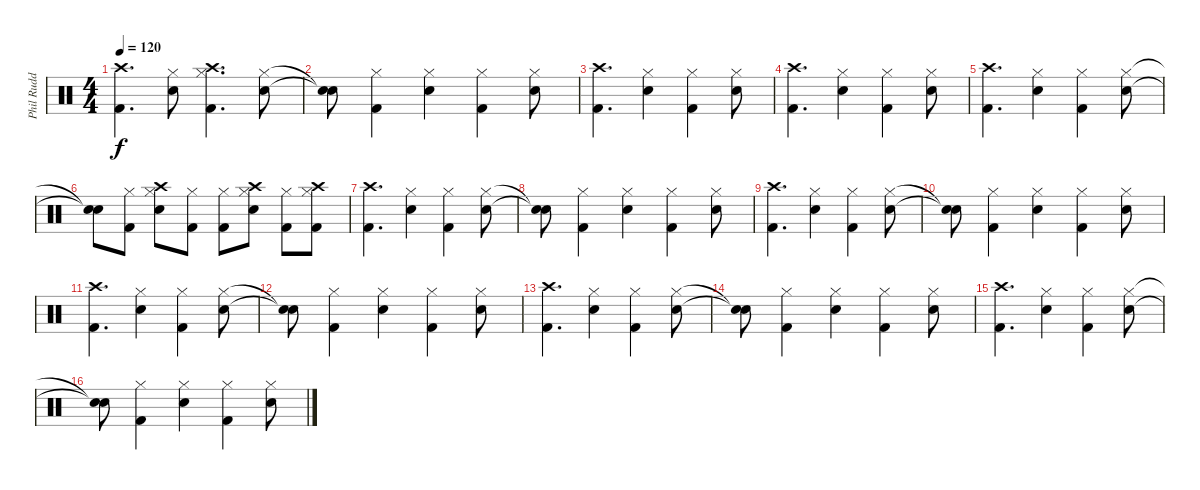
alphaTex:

\track ("Phil Rudd - Drums" "Phil Rudd ") {instrument percussion}
\staff {score}
\articulation defaults
\ts (4 4)
\tempo 120
\clef neutral
\ks c
("Crash high (hit)" "Kick (hit) 2").4{d dy f} ("Hi-Hat (closed)" "Snare (hit) 2").8 ("Crash high (hit)" "Hi-Hat (closed)" "Kick (hit) 2").4{d} ("Hi-Hat (closed)" "Snare (hit) 2").8 |
("Snare (hit)"{t} "Snare (hit)"{t}).8 ("Hi-Hat (closed)" "Kick (hit) 2").4 ("Hi-Hat (closed)" "Snare (hit) 2").4 ("Hi-Hat (closed)" "Kick (hit) 2").4 ("Hi-Hat (closed)" "Snare (hit) 2").8 |
("Crash high (hit)" "Kick (hit) 2").4{d} ("Hi-Hat (closed)" "Snare (hit) 2").4 ("Hi-Hat (closed)" "Kick (hit) 2").4 ("Hi-Hat (closed)" "Snare (hit) 2").8 |
("Crash high (hit)" "Kick (hit) 2").4{d} ("Hi-Hat (closed)" "Snare (hit) 2").4 ("Hi-Hat (closed)" "Kick (hit) 2").4 ("Hi-Hat (closed)" "Snare (hit) 2").8 |
("Crash high (hit)" "Kick (hit) 2").4{d} ("Hi-Hat (closed)" "Snare (hit) 2").4 ("Hi-Hat (closed)" "Kick (hit) 2").4 ("Hi-Hat (closed)" "Snare (hit) 2").8 |
("Snare (hit)"{t} "Snare (hit)"{t}).8 ("Hi-Hat (closed)" "Kick (hit) 2").8 ("Crash high (hit)" "Hi-Hat (closed)" "Snare (hit) 2").8 ("Hi-Hat (closed)" "Kick (hit) 2").8 ("Hi-Hat (closed)" "Kick (hit) 2").8 ("Crash high (hit)" "Hi-Hat (closed)" "Snare (hit) 2").8 ("Hi-Hat (closed)" "Kick (hit) 2").8 ("Crash high (hit)" "Hi-Hat (closed)" "Kick (hit) 2").8 |
("Crash high (hit)" "Kick (hit) 2").4{d} ("Hi-Hat (closed)" "Snare (hit) 2").4 ("Hi-Hat (closed)" "Kick (hit) 2").4 ("Hi-Hat (closed)" "Snare (hit) 2").8 |
("Snare (hit)"{t} "Snare (hit)"{t}).8 ("Hi-Hat (closed)" "Kick (hit) 2").4 ("Hi-Hat (closed)" "Snare (hit) 2").4 ("Hi-Hat (closed)" "Kick (hit) 2").4 ("Hi-Hat (closed)" "Snare (hit) 2").8 |
("Crash high (hit)" "Kick (hit) 2").4{d} ("Hi-Hat (closed)" "Snare (hit) 2").4 ("Hi-Hat (closed)" "Kick (hit) 2").4 ("Hi-Hat (closed)" "Snare (hit) 2").8 |
("Snare (hit)"{t} "Snare (hit)"{t}).8 ("Hi-Hat (closed)" "Kick (hit) 2").4 ("Hi-Hat (closed)" "Snare (hit) 2").4 ("Hi-Hat (closed)" "Kick (hit) 2").4 ("Hi-Hat (closed)" "Snare (hit) 2").8 |
("Crash high (hit)" "Kick (hit) 2").4{d} ("Hi-Hat (closed)" "Snare (hit) 2").4 ("Hi-Hat (closed)" "Kick (hit) 2").4 ("Hi-Hat (closed)" "Snare (hit) 2").8 |
("Snare (hit)"{t} "Snare (hit)"{t}).8 ("Hi-Hat (closed)" "Kick (hit) 2").4 ("Hi-Hat (closed)" "Snare (hit) 2").4 ("Hi-Hat (closed)" "Kick (hit) 2").4 ("Hi-Hat (closed)" "Snare (hit) 2").8 |
("Crash high (hit)" "Kick (hit) 2").4{d} ("Hi-Hat (closed)" "Snare (hit) 2").4 ("Hi-Hat (closed)" "Kick (hit) 2").4 ("Hi-Hat (closed)" "Snare (hit) 2").8 |
("Snare (hit)"{t} "Snare (hit)"{t}).8 ("Hi-Hat (closed)" "Kick (hit) 2").4 ("Hi-Hat (closed)" "Snare (hit) 2").4 ("Hi-Hat (closed)" "Kick (hit) 2").4 ("Hi-Hat (closed)" "Snare (hit) 2").8 |
("Crash high (hit)" "Kick (hit) 2").4{d} ("Hi-Hat (closed)" "Snare (hit) 2").4 ("Hi-Hat (closed)" "Kick (hit) 2").4 ("Hi-Hat (closed)" "Snare (hit) 2").8 |
("Snare (hit)"{t} "Snare (hit)"{t}).8 ("Hi-Hat (closed)" "Kick (hit) 2").4 ("Hi-Hat (closed)" "Snare (hit) 2").4 ("Hi-Hat (closed)" "Kick (hit) 2").4 ("Hi-Hat (closed)" "Snare (hit) 2").8
